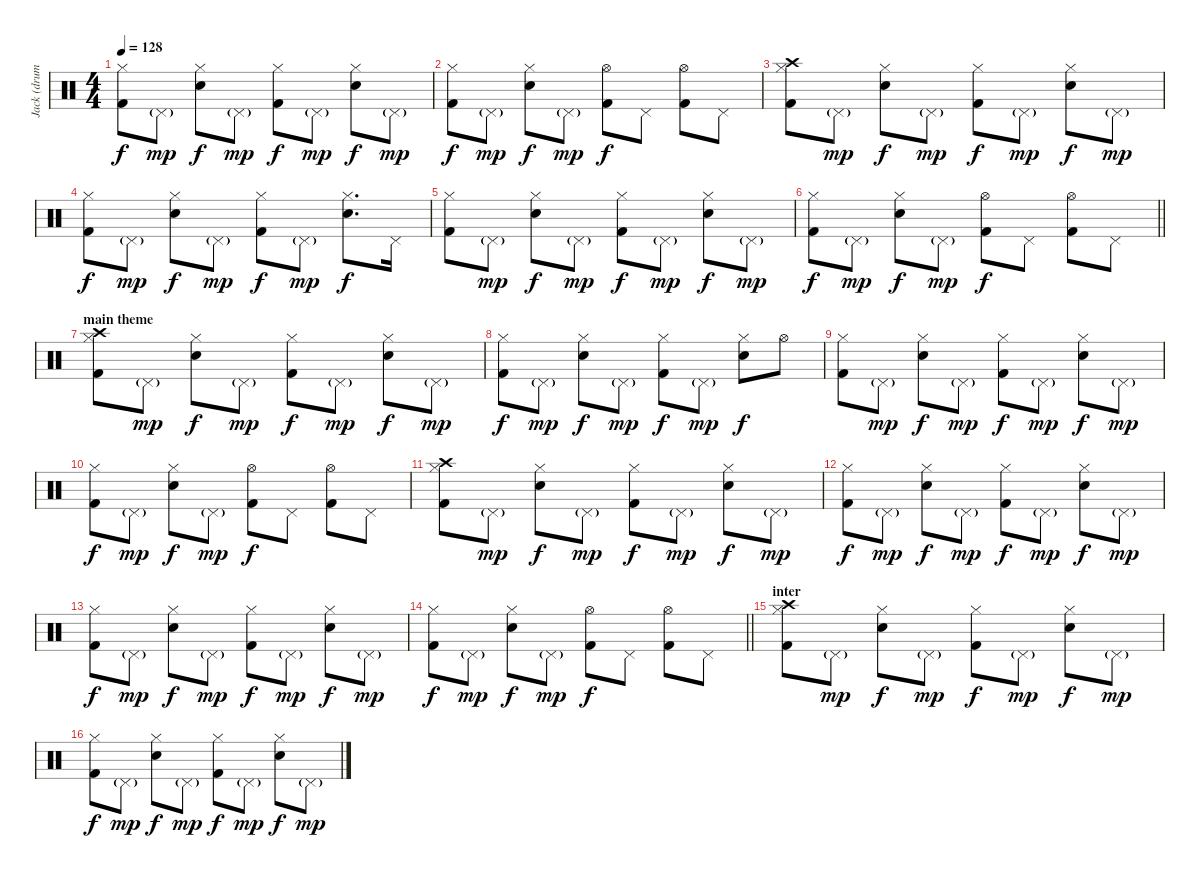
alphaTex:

\track ("Jack (drums)" "Jack (drum") {instrument percussion}
\staff {score}
\articulation defaults
\ts (4 4)
\tempo 128
\clef neutral
\ks c
("Hi-Hat (closed)" "Kick (hit) 2").8{dy f} "Pedal Hi-Hat (hit)"{g}.8{dy mp} ("Hi-Hat (closed)" "Snare (hit) 2").8{dy f} "Pedal Hi-Hat (hit)"{g}.8{dy mp} ("Hi-Hat (closed)" "Kick (hit) 2").8{dy f} "Pedal Hi-Hat (hit)"{g}.8{dy mp} ("Hi-Hat (closed)" "Snare (hit) 2").8{dy f} "Pedal Hi-Hat (hit)"{g}.8{dy mp} |
("Hi-Hat (closed)" "Kick (hit) 2").8{dy f} "Pedal Hi-Hat (hit)"{g}.8{dy mp} ("Hi-Hat (closed)" "Snare (hit) 2").8{dy f} "Pedal Hi-Hat (hit)"{g}.8{dy mp} ("Hi-Hat (open)" "Kick (hit) 2").8{dy f} "Pedal Hi-Hat (hit)".8 ("Hi-Hat (open)" "Kick (hit) 2").8 "Pedal Hi-Hat (hit)".8 |
("Hi-Hat (closed)" "Crash high (hit)" "Kick (hit) 2").8 "Pedal Hi-Hat (hit)"{g}.8{dy mp} ("Hi-Hat (closed)" "Snare (hit) 2").8{dy f} "Pedal Hi-Hat (hit)"{g}.8{dy mp} ("Hi-Hat (closed)" "Kick (hit) 2").8{dy f} "Pedal Hi-Hat (hit)"{g}.8{dy mp} ("Hi-Hat (closed)" "Snare (hit) 2").8{dy f} "Pedal Hi-Hat (hit)"{g}.8{dy mp} |
("Hi-Hat (closed)" "Kick (hit) 2").8{dy f} "Pedal Hi-Hat (hit)"{g}.8{dy mp} ("Hi-Hat (closed)" "Snare (hit) 2").8{dy f} "Pedal Hi-Hat (hit)"{g}.8{dy mp} ("Hi-Hat (closed)" "Kick (hit) 2").8{dy f} "Pedal Hi-Hat (hit)"{g}.8{dy mp} ("Hi-Hat (closed)" "Snare (hit) 2").8{d dy f} "Pedal Hi-Hat (hit)".16 |
("Hi-Hat (closed)" "Kick (hit) 2").8 "Pedal Hi-Hat (hit)"{g}.8{dy mp} ("Hi-Hat (closed)" "Snare (hit) 2").8{dy f} "Pedal Hi-Hat (hit)"{g}.8{dy mp} ("Hi-Hat (closed)" "Kick (hit) 2").8{dy f} "Pedal Hi-Hat (hit)"{g}.8{dy mp} ("Hi-Hat (closed)" "Snare (hit) 2").8{dy f} "Pedal Hi-Hat (hit)"{g}.8{dy mp} |
\barLineRight lightlight
("Hi-Hat (closed)" "Kick (hit) 2").8{dy f} "Pedal Hi-Hat (hit)"{g}.8{dy mp} ("Hi-Hat (closed)" "Snare (hit) 2").8{dy f} "Pedal Hi-Hat (hit)"{g}.8{dy mp} ("Hi-Hat (open)" "Kick (hit) 2").8{dy f} "Pedal Hi-Hat (hit)".8 ("Hi-Hat (open)" "Kick (hit) 2").8 "Pedal Hi-Hat (hit)".8 |
\section ("" "main theme")
("Hi-Hat (closed)" "Crash high (hit)" "Kick (hit) 2").8 "Pedal Hi-Hat (hit)"{g}.8{dy mp} ("Hi-Hat (closed)" "Snare (hit) 2").8{dy f} "Pedal Hi-Hat (hit)"{g}.8{dy mp} ("Hi-Hat (closed)" "Kick (hit) 2").8{dy f} "Pedal Hi-Hat (hit)"{g}.8{dy mp} ("Hi-Hat (closed)" "Snare (hit) 2").8{dy f} "Pedal Hi-Hat (hit)"{g}.8{dy mp} |
("Hi-Hat (closed)" "Kick (hit) 2").8{dy f} "Pedal Hi-Hat (hit)"{g}.8{dy mp} ("Hi-Hat (closed)" "Snare (hit) 2").8{dy f} "Pedal Hi-Hat (hit)"{g}.8{dy mp} ("Hi-Hat (closed)" "Kick (hit) 2").8{dy f} "Pedal Hi-Hat (hit)"{g}.8{dy mp} ("Hi-Hat (closed)" "Snare (hit) 2").8{dy f} "Hi-Hat (open)".8 |
("Hi-Hat (closed)" "Kick (hit) 2").8 "Pedal Hi-Hat (hit)"{g}.8{dy mp} ("Hi-Hat (closed)" "Snare (hit) 2").8{dy f} "Pedal Hi-Hat (hit)"{g}.8{dy mp} ("Hi-Hat (closed)" "Kick (hit) 2").8{dy f} "Pedal Hi-Hat (hit)"{g}.8{dy mp} ("Hi-Hat (closed)" "Snare (hit) 2").8{dy f} "Pedal Hi-Hat (hit)"{g}.8{dy mp} |
("Hi-Hat (closed)" "Kick (hit) 2").8{dy f} "Pedal Hi-Hat (hit)"{g}.8{dy mp} ("Hi-Hat (closed)" "Snare (hit) 2").8{dy f} "Pedal Hi-Hat (hit)"{g}.8{dy mp} ("Hi-Hat (open)" "Kick (hit) 2").8{dy f} "Pedal Hi-Hat (hit)".8 ("Hi-Hat (open)" "Kick (hit) 2").8 "Pedal Hi-Hat (hit)".8 |
("Hi-Hat (closed)" "Crash high (hit)" "Kick (hit) 2").8 "Pedal Hi-Hat (hit)"{g}.8{dy mp} ("Hi-Hat (closed)" "Snare (hit) 2").8{dy f} "Pedal Hi-Hat (hit)"{g}.8{dy mp} ("Hi-Hat (closed)" "Kick (hit) 2").8{dy f} "Pedal Hi-Hat (hit)"{g}.8{dy mp} ("Hi-Hat (closed)" "Snare (hit) 2").8{dy f} "Pedal Hi-Hat (hit)"{g}.8{dy mp} |
("Hi-Hat (closed)" "Kick (hit) 2").8{dy f} "Pedal Hi-Hat (hit)"{g}.8{dy mp} ("Hi-Hat (closed)" "Snare (hit) 2").8{dy f} "Pedal Hi-Hat (hit)"{g}.8{dy mp} ("Hi-Hat (closed)" "Kick (hit) 2").8{dy f} "Pedal Hi-Hat (hit)"{g}.8{dy mp} ("Hi-Hat (closed)" "Snare (hit) 2").8{dy f} "Pedal Hi-Hat (hit)"{g}.8{dy mp} |
("Hi-Hat (closed)" "Kick (hit) 2").8{dy f} "Pedal Hi-Hat (hit)"{g}.8{dy mp} ("Hi-Hat (closed)" "Snare (hit) 2").8{dy f} "Pedal Hi-Hat (hit)"{g}.8{dy mp} ("Hi-Hat (closed)" "Kick (hit) 2").8{dy f} "Pedal Hi-Hat (hit)"{g}.8{dy mp} ("Hi-Hat (closed)" "Snare (hit) 2").8{dy f} "Pedal Hi-Hat (hit)"{g}.8{dy mp} |
\barLineRight lightlight
("Hi-Hat (closed)" "Kick (hit) 2").8{dy f} "Pedal Hi-Hat (hit)"{g}.8{dy mp} ("Hi-Hat (closed)" "Snare (hit) 2").8{dy f} "Pedal Hi-Hat (hit)"{g}.8{dy mp} ("Hi-Hat (open)" "Kick (hit) 2").8{dy f} "Pedal Hi-Hat (hit)".8 ("Hi-Hat (open)" "Kick (hit) 2").8 "Pedal Hi-Hat (hit)".8 |
\section ("" "inter")
("Hi-Hat (closed)" "Crash high (hit)" "Kick (hit) 2").8 "Pedal Hi-Hat (hit)"{g}.8{dy mp} ("Hi-Hat (closed)" "Snare (hit) 2").8{dy f} "Pedal Hi-Hat (hit)"{g}.8{dy mp} ("Hi-Hat (closed)" "Kick (hit) 2").8{dy f} "Pedal Hi-Hat (hit)"{g}.8{dy mp} ("Hi-Hat (closed)" "Snare (hit) 2").8{dy f} "Pedal Hi-Hat (hit)"{g}.8{dy mp} |
("Hi-Hat (closed)" "Kick (hit) 2").8{dy f} "Pedal Hi-Hat (hit)"{g}.8{dy mp} ("Hi-Hat (closed)" "Snare (hit) 2").8{dy f} "Pedal Hi-Hat (hit)"{g}.8{dy mp} ("Hi-Hat (closed)" "Kick (hit) 2").8{dy f} "Pedal Hi-Hat (hit)"{g}.8{dy mp} ("Hi-Hat (closed)" "Snare (hit) 2").8{dy f} "Pedal Hi-Hat (hit)"{g}.8{dy mp}
